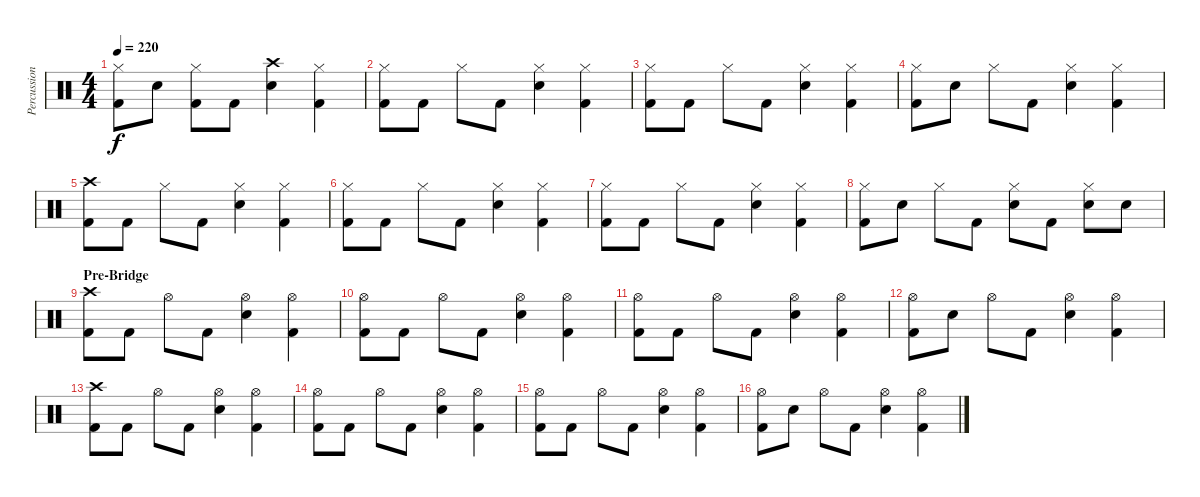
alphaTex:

\track ("Percussion" "Percussion") {instrument percussion}
\staff {score}
\articulation defaults
\ts (4 4)
\tempo 220
\clef neutral
\ks c
("Hi-Hat (closed)" "Kick (hit) 2").8{dy f} "Snare (hit) 2".8 ("Hi-Hat (closed)" "Kick (hit) 2").8 "Kick (hit) 2".8 ("Crash high (hit)" "Snare (hit) 2").4 ("Hi-Hat (closed)" "Kick (hit) 2").4 |
("Hi-Hat (closed)" "Kick (hit) 2").8 "Kick (hit) 2".8 "Hi-Hat (closed)".8 "Kick (hit) 2".8 ("Hi-Hat (closed)" "Snare (hit) 2").4 ("Hi-Hat (closed)" "Kick (hit) 2").4 |
("Hi-Hat (closed)" "Kick (hit) 2").8 "Kick (hit) 2".8 "Hi-Hat (closed)".8 "Kick (hit) 2".8 ("Hi-Hat (closed)" "Snare (hit) 2").4 ("Hi-Hat (closed)" "Kick (hit) 2").4 |
("Hi-Hat (closed)" "Kick (hit) 2").8 "Snare (hit) 2".8 "Hi-Hat (closed)".8 "Kick (hit) 2".8 ("Hi-Hat (closed)" "Snare (hit) 2").4 ("Hi-Hat (closed)" "Kick (hit) 2").4 |
("Crash high (hit)" "Kick (hit) 2").8 "Kick (hit) 2".8 "Hi-Hat (closed)".8 "Kick (hit) 2".8 ("Hi-Hat (closed)" "Snare (hit) 2").4 ("Hi-Hat (closed)" "Kick (hit) 2").4 |
("Hi-Hat (closed)" "Kick (hit) 2").8 "Kick (hit) 2".8 "Hi-Hat (closed)".8 "Kick (hit) 2".8 ("Hi-Hat (closed)" "Snare (hit) 2").4 ("Hi-Hat (closed)" "Kick (hit) 2").4 |
("Hi-Hat (closed)" "Kick (hit) 2").8 "Kick (hit) 2".8 "Hi-Hat (closed)".8 "Kick (hit) 2".8 ("Hi-Hat (closed)" "Snare (hit) 2").4 ("Hi-Hat (closed)" "Kick (hit) 2").4 |
("Hi-Hat (closed)" "Kick (hit) 2").8 "Snare (hit) 2".8 "Hi-Hat (closed)".8 "Kick (hit) 2".8 ("Hi-Hat (closed)" "Snare (hit) 2").8 "Kick (hit) 2".8 ("Hi-Hat (closed)" "Snare (hit) 2").8 "Snare (hit) 2".8 |
\section ("" "Pre-Bridge")
("Crash high (hit)" "Kick (hit) 2").8 "Kick (hit) 2".8 "Hi-Hat (open)".8 "Kick (hit) 2".8 ("Hi-Hat (open)" "Snare (hit) 2").4 ("Hi-Hat (open)" "Kick (hit) 2").4 |
("Hi-Hat (open)" "Kick (hit) 2").8 "Kick (hit) 2".8 "Hi-Hat (open)".8 "Kick (hit) 2".8 ("Hi-Hat (open)" "Snare (hit) 2").4 ("Hi-Hat (open)" "Kick (hit) 2").4 |
("Hi-Hat (open)" "Kick (hit) 2").8 "Kick (hit) 2".8 "Hi-Hat (open)".8 "Kick (hit) 2".8 ("Hi-Hat (open)" "Snare (hit) 2").4 ("Hi-Hat (open)" "Kick (hit) 2").4 |
("Hi-Hat (open)" "Kick (hit) 2").8 "Snare (hit) 2".8 "Hi-Hat (open)".8 "Kick (hit) 2".8 ("Hi-Hat (open)" "Snare (hit) 2").4 ("Hi-Hat (open)" "Kick (hit) 2").4 |
("Crash high (hit)" "Kick (hit) 2").8 "Kick (hit) 2".8 "Hi-Hat (open)".8 "Kick (hit) 2".8 ("Hi-Hat (open)" "Snare (hit) 2").4 ("Hi-Hat (open)" "Kick (hit) 2").4 |
("Hi-Hat (open)" "Kick (hit) 2").8 "Kick (hit) 2".8 "Hi-Hat (open)".8 "Kick (hit) 2".8 ("Hi-Hat (open)" "Snare (hit) 2").4 ("Hi-Hat (open)" "Kick (hit) 2").4 |
("Hi-Hat (open)" "Kick (hit) 2").8 "Kick (hit) 2".8 "Hi-Hat (open)".8 "Kick (hit) 2".8 ("Hi-Hat (open)" "Snare (hit) 2").4 ("Hi-Hat (open)" "Kick (hit) 2").4 |
("Hi-Hat (open)" "Kick (hit) 2").8 "Snare (hit) 2".8 "Hi-Hat (open)".8 "Kick (hit) 2".8 ("Hi-Hat (open)" "Snare (hit) 2").4 ("Hi-Hat (open)" "Kick (hit) 2").4
